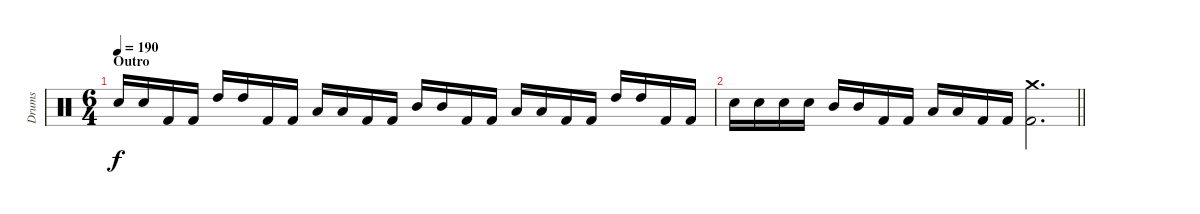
\track ("Drums" "Drums") {instrument percussion}
\staff {score}
\articulation defaults
\ts (6 4)
\section ("" "Outro")
\tempo 190
\clef neutral
\ks c "Electric Snare (hit)".16{dy f} "Electric Snare (hit)".16 "Kick (hit) 2".16 "Kick (hit) 2".16 "High Tom (hit)".16 "High Tom (hit)".16 "Kick (hit) 2".16 "Kick (hit) 2".16 "Low Tom (hit)".16 "Low Tom (hit)".16 "Kick (hit) 2".16 "Kick (hit) 2".16 "Mid Tom (hit)".16 "Mid Tom (hit)".16 "Kick (hit) 2".16 "Kick (hit) 2".16 "Low Tom (hit)".16 "Low Tom (hit)".16 "Kick (hit) 2".16 "Kick (hit) 2".16 "High Tom (hit)".16 "High Tom (hit)".16 "Kick (hit) 2".16 "Kick (hit) 2".16
|
\barLineRight lightlight "Electric Snare (hit)".16 "Electric Snare (hit)".16 "Electric Snare (hit)".16 "Electric Snare (hit)".16 "Mid Tom (hit)".16 "Mid Tom (hit)".16 "Kick (hit) 2".16 "Kick (hit) 2".16 "Low Tom (hit)".16 "Low Tom (hit)".16 "Kick (hit) 2".16 "Kick (hit) 2".16
("Crash medium (hit)" "Kick (hit) 2").2{d}
